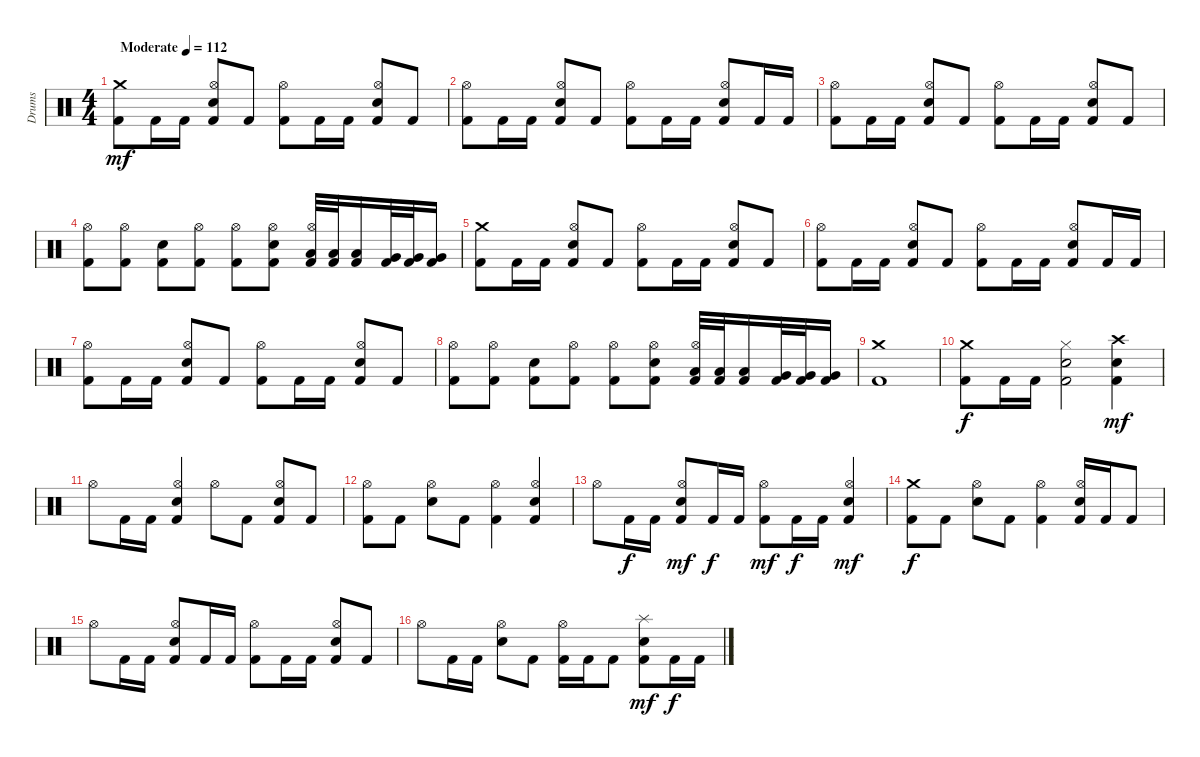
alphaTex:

\track ("Drums" "Drums") {instrument percussion}
\staff {score}
\articulation defaults
\ts (4 4)
\tempo (112 "Moderate")
\clef neutral
\ks c
("Crash medium (hit)" "Kick (hit) 2").8{dy mf} "Kick (hit) 2".16 "Kick (hit) 2".16 ("Hi-Hat (open)" "Electric Snare (hit)" "Kick (hit) 2").8 "Kick (hit) 2".8 ("Hi-Hat (open)" "Kick (hit) 2").8 "Kick (hit) 2".16 "Kick (hit) 2".16 ("Hi-Hat (open)" "Electric Snare (hit)" "Kick (hit) 2").8 "Kick (hit) 2".8 |
("Hi-Hat (open)" "Kick (hit) 2").8 "Kick (hit) 2".16 "Kick (hit) 2".16 ("Hi-Hat (open)" "Electric Snare (hit)" "Kick (hit) 2").8 "Kick (hit) 2".8 ("Hi-Hat (open)" "Kick (hit) 2").8 "Kick (hit) 2".16 "Kick (hit) 2".16 ("Hi-Hat (open)" "Electric Snare (hit)" "Kick (hit) 2").8 "Kick (hit) 2".16 "Kick (hit) 2".16 |
("Hi-Hat (open)" "Kick (hit) 2").8 "Kick (hit) 2".16 "Kick (hit) 2".16 ("Hi-Hat (open)" "Electric Snare (hit)" "Kick (hit) 2").8 "Kick (hit) 2".8 ("Hi-Hat (open)" "Kick (hit) 2").8 "Kick (hit) 2".16 "Kick (hit) 2".16 ("Hi-Hat (open)" "Electric Snare (hit)" "Kick (hit) 2").8 "Kick (hit) 2".8 |
("Hi-Hat (open)" "Kick (hit) 2").8 ("Hi-Hat (open)" "Kick (hit) 2").8 ("Electric Snare (hit)" "Kick (hit) 2").8 ("Hi-Hat (open)" "Kick (hit) 2").8 ("Hi-Hat (open)" "Kick (hit) 2").8 ("Hi-Hat (open)" "Electric Snare (hit)" "Kick (hit) 2").8 ("Hi-Hat (open)" "Low Tom (hit)" "Kick (hit) 2").32 ("Low Tom (hit)" "Kick (hit) 2").32 ("Low Tom (hit)" "Kick (hit) 2").16 ("Very Low Tom (hit)" "Kick (hit) 2").32 ("Very Low Tom (hit)" "Kick (hit) 2").32 ("Very Low Tom (hit)" "Kick (hit) 2").16 |
("Crash medium (hit)" "Kick (hit) 2").8 "Kick (hit) 2".16 "Kick (hit) 2".16 ("Hi-Hat (open)" "Electric Snare (hit)" "Kick (hit) 2").8 "Kick (hit) 2".8 ("Hi-Hat (open)" "Kick (hit) 2").8 "Kick (hit) 2".16 "Kick (hit) 2".16 ("Hi-Hat (open)" "Electric Snare (hit)" "Kick (hit) 2").8 "Kick (hit) 2".8 |
("Hi-Hat (open)" "Kick (hit) 2").8 "Kick (hit) 2".16 "Kick (hit) 2".16 ("Hi-Hat (open)" "Electric Snare (hit)" "Kick (hit) 2").8 "Kick (hit) 2".8 ("Hi-Hat (open)" "Kick (hit) 2").8 "Kick (hit) 2".16 "Kick (hit) 2".16 ("Hi-Hat (open)" "Electric Snare (hit)" "Kick (hit) 2").8 "Kick (hit) 2".16 "Kick (hit) 2".16 |
("Hi-Hat (open)" "Kick (hit) 2").8 "Kick (hit) 2".16 "Kick (hit) 2".16 ("Hi-Hat (open)" "Electric Snare (hit)" "Kick (hit) 2").8 "Kick (hit) 2".8 ("Hi-Hat (open)" "Kick (hit) 2").8 "Kick (hit) 2".16 "Kick (hit) 2".16 ("Hi-Hat (open)" "Electric Snare (hit)" "Kick (hit) 2").8 "Kick (hit) 2".8 |
("Hi-Hat (open)" "Kick (hit) 2").8 ("Hi-Hat (open)" "Kick (hit) 2").8 ("Electric Snare (hit)" "Kick (hit) 2").8 ("Hi-Hat (open)" "Kick (hit) 2").8 ("Hi-Hat (open)" "Kick (hit) 2").8 ("Hi-Hat (open)" "Electric Snare (hit)" "Kick (hit) 2").8 ("Hi-Hat (open)" "Low Tom (hit)" "Kick (hit) 2").32 ("Low Tom (hit)" "Kick (hit) 2").32 ("Low Tom (hit)" "Kick (hit) 2").16 ("Very Low Tom (hit)" "Kick (hit) 2").32 ("Very Low Tom (hit)" "Kick (hit) 2").32 ("Very Low Tom (hit)" "Kick (hit) 2").16 |
("Crash medium (hit)" "Kick (hit) 2").1 |
("Crash medium (hit)" "Kick (hit) 2").8{dy f} "Kick (hit) 2".16 "Kick (hit) 2".16 ("Hi-Hat (closed)" "Electric Snare (hit)" "Kick (hit) 2").2 ("Crash high (hit)" "Electric Snare (hit)" "Kick (hit) 2").4{dy mf} |
"Hi-Hat (open)".8 "Kick (hit) 2".16 "Kick (hit) 2".16 ("Hi-Hat (open)" "Electric Snare (hit)" "Kick (hit) 2").4 "Hi-Hat (open)".8 "Kick (hit) 2".8 ("Hi-Hat (open)" "Electric Snare (hit)" "Kick (hit) 2").8 "Kick (hit) 2".8 |
("Hi-Hat (open)" "Kick (hit) 2").8 "Kick (hit) 2".8 ("Hi-Hat (open)" "Electric Snare (hit)").8 "Kick (hit) 2".8 ("Hi-Hat (open)" "Kick (hit) 2").4 ("Hi-Hat (open)" "Electric Snare (hit)" "Kick (hit) 2").4 |
"Hi-Hat (open)".8 "Kick (hit) 2".16{dy f} "Kick (hit) 2".16 ("Hi-Hat (open)" "Electric Snare (hit)" "Kick (hit) 2").8{dy mf} "Kick (hit) 2".16{dy f} "Kick (hit) 2".16 ("Hi-Hat (open)" "Kick (hit) 2").8{dy mf} "Kick (hit) 2".16{dy f} "Kick (hit) 2".16 ("Hi-Hat (open)" "Electric Snare (hit)" "Kick (hit) 2").4{dy mf} |
("Crash medium (hit)" "Kick (hit) 2").8{dy f} "Kick (hit) 2".8 ("Hi-Hat (open)" "Electric Snare (hit)").8 "Kick (hit) 2".8 ("Hi-Hat (open)" "Kick (hit) 2").4 ("Hi-Hat (open)" "Electric Snare (hit)" "Kick (hit) 2").16 "Kick (hit) 2".16 "Kick (hit) 2".8 |
"Hi-Hat (open)".8 "Kick (hit) 2".16 "Kick (hit) 2".16 ("Hi-Hat (open)" "Electric Snare (hit)" "Kick (hit) 2").8 "Kick (hit) 2".16 "Kick (hit) 2".16 ("Hi-Hat (open)" "Kick (hit) 2").8 "Kick (hit) 2".16 "Kick (hit) 2".16 ("Hi-Hat (open)" "Electric Snare (hit)" "Kick (hit) 2").8 "Kick (hit) 2".8 |
"Hi-Hat (open)".8 "Kick (hit) 2".16 "Kick (hit) 2".16 ("Hi-Hat (open)" "Electric Snare (hit)").8 "Kick (hit) 2".8 ("Hi-Hat (open)" "Kick (hit) 2").16 "Kick (hit) 2".16 "Kick (hit) 2".8 ("Splash (hit)" "Electric Snare (hit)" "Kick (hit) 2").8{dy mf} "Kick (hit) 2".16{dy f} "Kick (hit) 2".16
